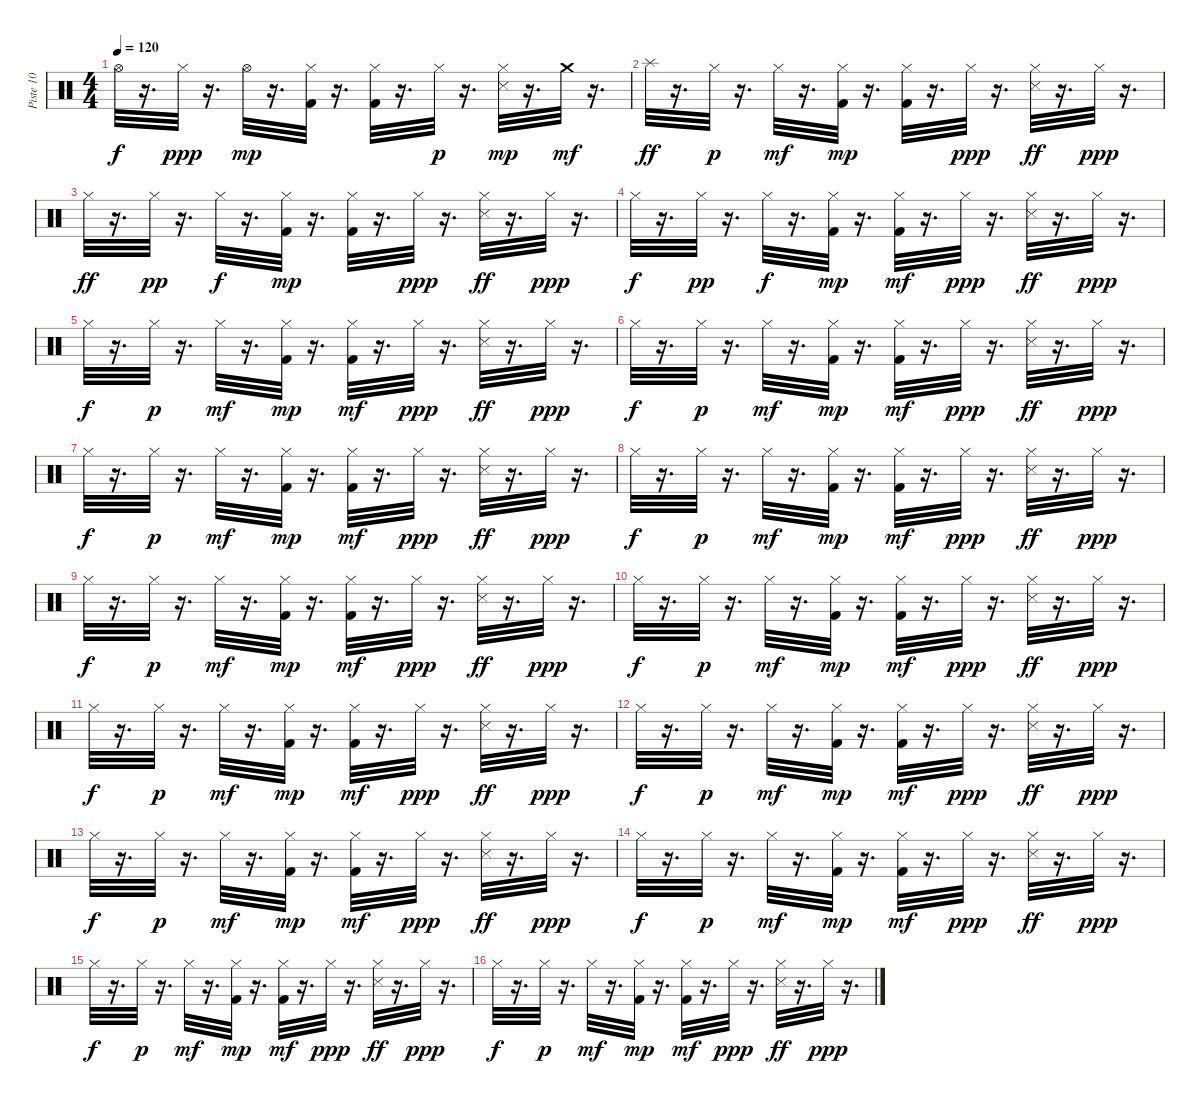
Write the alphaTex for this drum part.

\track ("Piste 10" "Piste 10") {instrument percussion}
\staff {score}
\articulation defaults
\ts (4 4)
\tempo 120
\clef neutral
\ks c "Hi-Hat (open)".32{dy f}
r.16{d} "Hi-Hat (closed)".32{dy ppp} r.16{d} "Hi-Hat (open)".32{dy mp} r.16{d} ("Hi-Hat (closed)" "Kick (hit) 2").32 r.16{d} ("Kick (hit) 2" "Hi-Hat (closed)").32 r.16{d} "Hi-Hat (closed)".32{dy p} r.16{d} ("Hi-Hat (closed)" "Snare (side stick) 3").32{dy mp} r.16{d} "Crash medium (hit)".32{dy mf} r.16{d} |
"Splash (hit)".32{dy ff} r.16{d} "Hi-Hat (closed)".32{dy p} r.16{d} "Hi-Hat (closed)".32{dy mf} r.16{d} ("Hi-Hat (closed)" "Kick (hit) 2").32{dy mp} r.16{d} ("Hi-Hat (closed)" "Kick (hit) 2").32 r.16{d} "Hi-Hat (closed)".32{dy ppp} r.16{d} ("Hi-Hat (closed)" "Snare (side stick) 3").32{dy ff} r.16{d} "Hi-Hat (closed)".32{dy ppp} r.16{d} |
"Hi-Hat (closed)".32{dy ff} r.16{d} "Hi-Hat (closed)".32{dy pp} r.16{d} "Hi-Hat (closed)".32{dy f} r.16{d} ("Hi-Hat (closed)" "Kick (hit) 2").32{dy mp} r.16{d} ("Hi-Hat (closed)" "Kick (hit) 2").32 r.16{d} "Hi-Hat (closed)".32{dy ppp} r.16{d} ("Hi-Hat (closed)" "Snare (side stick) 3").32{dy ff} r.16{d} "Hi-Hat (closed)".32{dy ppp} r.16{d} |
"Hi-Hat (closed)".32{dy f} r.16{d} "Hi-Hat (closed)".32{dy pp} r.16{d} "Hi-Hat (closed)".32{dy f} r.16{d} ("Hi-Hat (closed)" "Kick (hit) 2").32{dy mp} r.16{d} ("Hi-Hat (closed)" "Kick (hit) 2").32{dy mf} r.16{d} "Hi-Hat (closed)".32{dy ppp} r.16{d} ("Hi-Hat (closed)" "Snare (side stick) 3").32{dy ff} r.16{d} "Hi-Hat (closed)".32{dy ppp} r.16{d} |
"Hi-Hat (closed)".32{dy f} r.16{d} "Hi-Hat (closed)".32{dy p} r.16{d} "Hi-Hat (closed)".32{dy mf} r.16{d} ("Hi-Hat (closed)" "Kick (hit) 2").32{dy mp} r.16{d} ("Hi-Hat (closed)" "Kick (hit) 2").32{dy mf} r.16{d} "Hi-Hat (closed)".32{dy ppp} r.16{d} ("Hi-Hat (closed)" "Snare (side stick) 3").32{dy ff} r.16{d} "Hi-Hat (closed)".32{dy ppp} r.16{d} |
"Hi-Hat (closed)".32{dy f} r.16{d} "Hi-Hat (closed)".32{dy p} r.16{d} "Hi-Hat (closed)".32{dy mf} r.16{d} ("Hi-Hat (closed)" "Kick (hit) 2").32{dy mp} r.16{d} ("Hi-Hat (closed)" "Kick (hit) 2").32{dy mf} r.16{d} "Hi-Hat (closed)".32{dy ppp} r.16{d} ("Hi-Hat (closed)" "Snare (side stick) 3").32{dy ff} r.16{d} "Hi-Hat (closed)".32{dy ppp} r.16{d} |
"Hi-Hat (closed)".32{dy f} r.16{d} "Hi-Hat (closed)".32{dy p} r.16{d} "Hi-Hat (closed)".32{dy mf} r.16{d} ("Hi-Hat (closed)" "Kick (hit) 2").32{dy mp} r.16{d} ("Hi-Hat (closed)" "Kick (hit) 2").32{dy mf} r.16{d} "Hi-Hat (closed)".32{dy ppp} r.16{d} ("Hi-Hat (closed)" "Snare (side stick) 3").32{dy ff} r.16{d} "Hi-Hat (closed)".32{dy ppp} r.16{d} |
"Hi-Hat (closed)".32{dy f} r.16{d} "Hi-Hat (closed)".32{dy p} r.16{d} "Hi-Hat (closed)".32{dy mf} r.16{d} ("Hi-Hat (closed)" "Kick (hit) 2").32{dy mp} r.16{d} ("Hi-Hat (closed)" "Kick (hit) 2").32{dy mf} r.16{d} "Hi-Hat (closed)".32{dy ppp} r.16{d} ("Hi-Hat (closed)" "Snare (side stick) 3").32{dy ff} r.16{d} "Hi-Hat (closed)".32{dy ppp} r.16{d} |
"Hi-Hat (closed)".32{dy f} r.16{d} "Hi-Hat (closed)".32{dy p} r.16{d} "Hi-Hat (closed)".32{dy mf} r.16{d} ("Hi-Hat (closed)" "Kick (hit) 2").32{dy mp} r.16{d} ("Hi-Hat (closed)" "Kick (hit) 2").32{dy mf} r.16{d} "Hi-Hat (closed)".32{dy ppp} r.16{d} ("Hi-Hat (closed)" "Snare (side stick) 3").32{dy ff} r.16{d} "Hi-Hat (closed)".32{dy ppp} r.16{d} |
"Hi-Hat (closed)".32{dy f} r.16{d} "Hi-Hat (closed)".32{dy p} r.16{d} "Hi-Hat (closed)".32{dy mf} r.16{d} ("Hi-Hat (closed)" "Kick (hit) 2").32{dy mp} r.16{d} ("Hi-Hat (closed)" "Kick (hit) 2").32{dy mf} r.16{d} "Hi-Hat (closed)".32{dy ppp} r.16{d} ("Hi-Hat (closed)" "Snare (side stick) 3").32{dy ff} r.16{d} "Hi-Hat (closed)".32{dy ppp} r.16{d} |
"Hi-Hat (closed)".32{dy f} r.16{d} "Hi-Hat (closed)".32{dy p} r.16{d} "Hi-Hat (closed)".32{dy mf} r.16{d} ("Hi-Hat (closed)" "Kick (hit) 2").32{dy mp} r.16{d} ("Hi-Hat (closed)" "Kick (hit) 2").32{dy mf} r.16{d} "Hi-Hat (closed)".32{dy ppp} r.16{d} ("Hi-Hat (closed)" "Snare (side stick) 3").32{dy ff} r.16{d} "Hi-Hat (closed)".32{dy ppp} r.16{d} |
"Hi-Hat (closed)".32{dy f} r.16{d} "Hi-Hat (closed)".32{dy p} r.16{d} "Hi-Hat (closed)".32{dy mf} r.16{d} ("Hi-Hat (closed)" "Kick (hit) 2").32{dy mp} r.16{d} ("Hi-Hat (closed)" "Kick (hit) 2").32{dy mf} r.16{d} "Hi-Hat (closed)".32{dy ppp} r.16{d} ("Hi-Hat (closed)" "Snare (side stick) 3").32{dy ff} r.16{d} "Hi-Hat (closed)".32{dy ppp} r.16{d} |
"Hi-Hat (closed)".32{dy f} r.16{d} "Hi-Hat (closed)".32{dy p} r.16{d} "Hi-Hat (closed)".32{dy mf} r.16{d} ("Hi-Hat (closed)" "Kick (hit) 2").32{dy mp} r.16{d} ("Hi-Hat (closed)" "Kick (hit) 2").32{dy mf} r.16{d} "Hi-Hat (closed)".32{dy ppp} r.16{d} ("Hi-Hat (closed)" "Snare (side stick) 3").32{dy ff} r.16{d} "Hi-Hat (closed)".32{dy ppp} r.16{d} |
"Hi-Hat (closed)".32{dy f} r.16{d} "Hi-Hat (closed)".32{dy p} r.16{d} "Hi-Hat (closed)".32{dy mf} r.16{d} ("Hi-Hat (closed)" "Kick (hit) 2").32{dy mp} r.16{d} ("Hi-Hat (closed)" "Kick (hit) 2").32{dy mf} r.16{d} "Hi-Hat (closed)".32{dy ppp} r.16{d} ("Hi-Hat (closed)" "Snare (side stick) 3").32{dy ff} r.16{d} "Hi-Hat (closed)".32{dy ppp} r.16{d} |
"Hi-Hat (closed)".32{dy f} r.16{d} "Hi-Hat (closed)".32{dy p} r.16{d} "Hi-Hat (closed)".32{dy mf} r.16{d} ("Hi-Hat (closed)" "Kick (hit) 2").32{dy mp} r.16{d} ("Hi-Hat (closed)" "Kick (hit) 2").32{dy mf} r.16{d} "Hi-Hat (closed)".32{dy ppp} r.16{d} ("Hi-Hat (closed)" "Snare (side stick) 3").32{dy ff} r.16{d} "Hi-Hat (closed)".32{dy ppp} r.16{d} |
"Hi-Hat (closed)".32{dy f} r.16{d} "Hi-Hat (closed)".32{dy p} r.16{d} "Hi-Hat (closed)".32{dy mf} r.16{d} ("Hi-Hat (closed)" "Kick (hit) 2").32{dy mp} r.16{d} ("Hi-Hat (closed)" "Kick (hit) 2").32{dy mf} r.16{d} "Hi-Hat (closed)".32{dy ppp} r.16{d} ("Hi-Hat (closed)" "Snare (side stick) 3").32{dy ff} r.16{d} "Hi-Hat (closed)".32{dy ppp} r.16{d}
